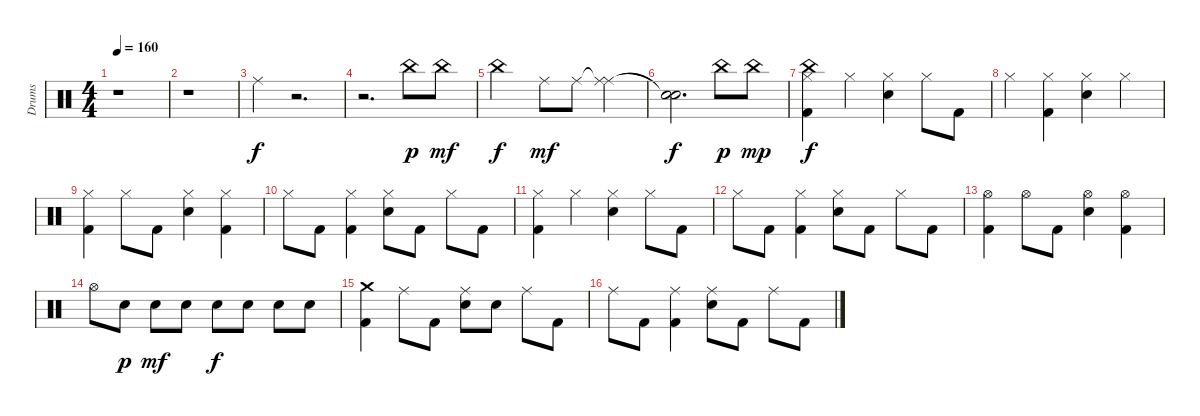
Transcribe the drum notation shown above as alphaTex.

\track ("Drums" "Drums") {instrument percussion}
\staff {score}
\articulation defaults
\ts (4 4)
\tempo 160
\clef neutral
\ks c
r.1{dy f} |
r.1 |
"Ride (middle)".4 r.2{d} |
r.2{d} "China (hit)".8{dy p} "China (hit)".8{dy mf} |
"China (hit)".2{dy f} "Ride (middle)".8{dy mf} "Ride (middle)".8 ("Ride (middle)"{t} "Ride (middle)").4 |
("Snare (hit)"{t} "Snare (hit)"{t}).2{d dy f} "China (hit)".8{dy p} "China (hit)".8{dy mp} |
("China (hit)" "Hi-Hat (closed)" "Kick (hit) 2").4{dy f} "Hi-Hat (closed)".4 ("Hi-Hat (closed)" "Snare (hit) 2").4 "Hi-Hat (closed)".8 "Kick (hit) 2".8 |
"Hi-Hat (closed)".4 ("Hi-Hat (closed)" "Kick (hit) 2").4 ("Hi-Hat (closed)" "Snare (hit) 2").4 "Hi-Hat (closed)".4 |
("Hi-Hat (closed)" "Kick (hit) 2").4 "Hi-Hat (closed)".8 "Kick (hit) 2".8 ("Hi-Hat (closed)" "Snare (hit) 2").4 ("Hi-Hat (closed)" "Kick (hit) 2").4 |
"Hi-Hat (closed)".8 "Kick (hit) 2".8 ("Hi-Hat (closed)" "Kick (hit) 2").4 ("Hi-Hat (closed)" "Snare (hit) 2").8 "Kick (hit) 2".8 "Hi-Hat (closed)".8 "Kick (hit) 2".8 |
("Hi-Hat (closed)" "Kick (hit) 2").4 "Hi-Hat (closed)".4 ("Hi-Hat (closed)" "Snare (hit) 2").4 "Hi-Hat (closed)".8 "Kick (hit) 2".8 |
"Hi-Hat (closed)".8 "Kick (hit) 2".8 ("Hi-Hat (closed)" "Kick (hit) 2").4 ("Hi-Hat (closed)" "Snare (hit) 2").8 "Kick (hit) 2".8 "Hi-Hat (closed)".8 "Kick (hit) 2".8 |
("Hi-Hat (open)" "Kick (hit) 2").4 "Hi-Hat (open)".8 "Kick (hit) 2".8 ("Hi-Hat (open)" "Snare (hit) 2").4 ("Hi-Hat (open)" "Kick (hit) 2").4 |
"Hi-Hat (open)".8 "Snare (hit) 2".8{dy p} "Snare (hit) 2".8{dy mf} "Snare (hit) 2".8 "Snare (hit) 2".8{dy f} "Snare (hit) 2".8 "Snare (hit) 2".8 "Snare (hit) 2".8 |
("Crash medium (hit)" "Kick (hit) 2").4 "Ride (middle)".8 "Kick (hit) 2".8 ("Ride (middle)" "Snare (hit) 2").8 "Snare (hit) 2".8 "Ride (middle)".8 "Kick (hit) 2".8 |
"Ride (middle)".8 "Kick (hit) 2".8 ("Ride (middle)" "Kick (hit) 2").4 ("Ride (middle)" "Snare (hit) 2").8 "Kick (hit) 2".8 "Ride (middle)".8 "Kick (hit) 2".8
